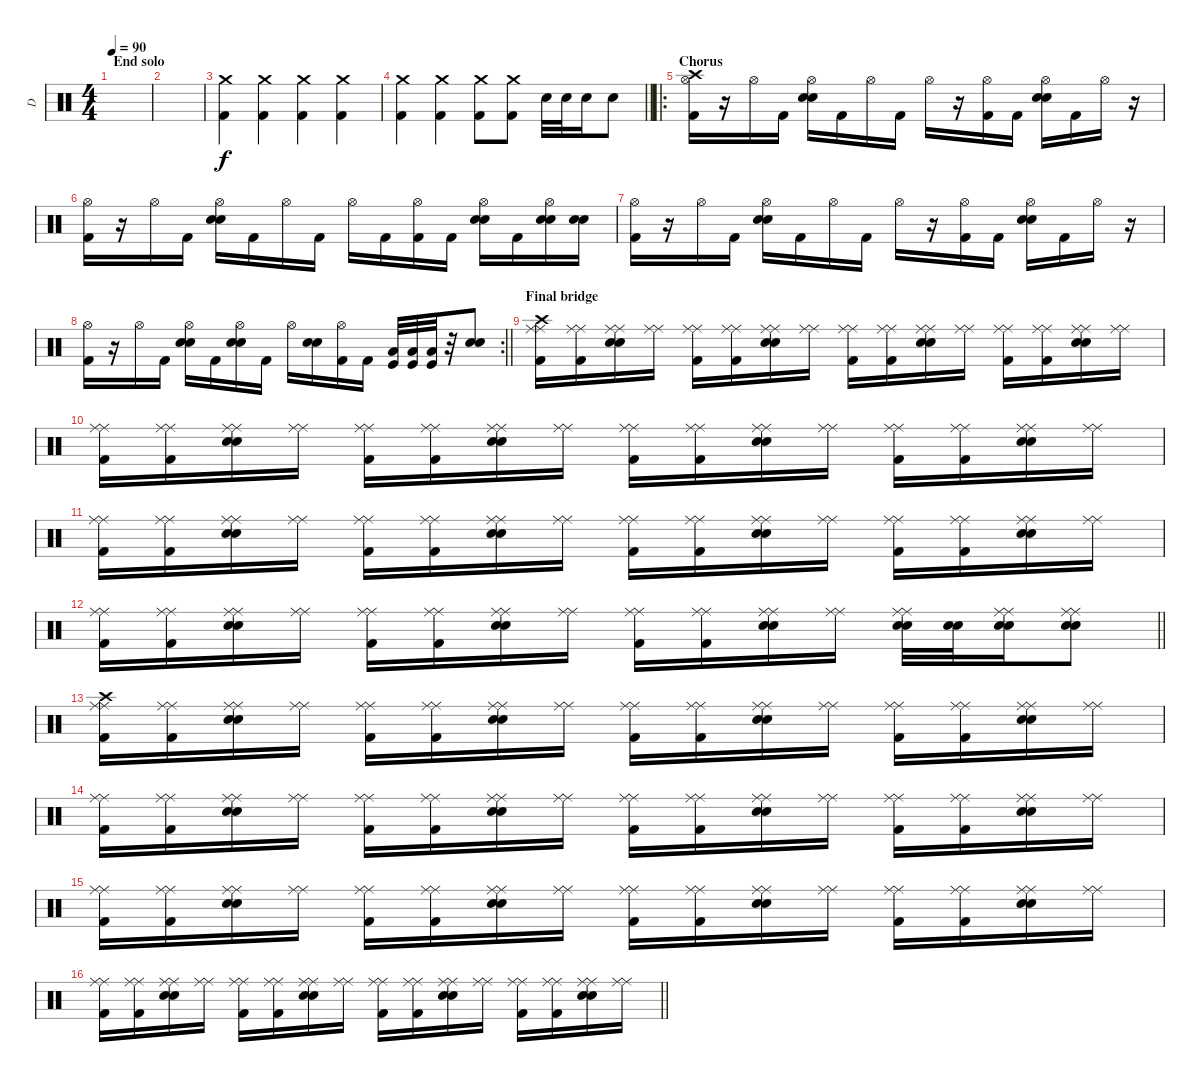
\track ("D" "D") {instrument percussion}
\staff {score}
\articulation defaults
\ts (4 4)
\section ("" "End solo")
\tempo 90
\clef neutral
\ks c
|
|
("Crash medium (hit)" "Kick (hit) 2").4 ("Crash medium (hit)" "Kick (hit) 2").4 ("Crash medium (hit)" "Kick (hit) 2").4 ("Crash medium (hit)" "Kick (hit) 2").4 |
\barLineRight lightlight
("Crash medium (hit)" "Kick (hit) 2").4 ("Crash medium (hit)" "Kick (hit) 2").4 ("Crash medium (hit)" "Kick (hit) 2").8 ("Crash medium (hit)" "Kick (hit) 2").8 "Electric Snare (hit)".32 "Electric Snare (hit)".32 "Electric Snare (hit)".16 "Electric Snare (hit)".8 |
\ro
\section ("" "Chorus")
("Crash high (hit)" "Kick (hit) 2" "Hi-Hat (open)").16 r.16 "Hi-Hat (open)".16 "Kick (hit) 2".16 ("Electric Snare (hit)" "Electric Snare (hit)" "Hi-Hat (open)").16 "Kick (hit) 2".16 "Hi-Hat (open)".16 "Kick (hit) 2".16 "Hi-Hat (open)".16 r.16 ("Kick (hit) 2" "Hi-Hat (open)").16 "Kick (hit) 2".16 ("Electric Snare (hit)" "Electric Snare (hit)" "Hi-Hat (open)").16 "Kick (hit) 2".16 "Hi-Hat (open)".16 r.16 |
("Kick (hit) 2" "Hi-Hat (open)").16 r.16 "Hi-Hat (open)".16 "Kick (hit) 2".16 ("Electric Snare (hit)" "Electric Snare (hit)" "Hi-Hat (open)").16 "Kick (hit) 2".16 "Hi-Hat (open)".16 "Kick (hit) 2".16 "Hi-Hat (open)".16 "Kick (hit) 2".16 ("Kick (hit) 2" "Hi-Hat (open)").16 "Kick (hit) 2".16 ("Electric Snare (hit)" "Electric Snare (hit)" "Hi-Hat (open)").16 "Kick (hit) 2".16 ("Electric Snare (hit)" "Electric Snare (hit)" "Hi-Hat (open)").16 ("Electric Snare (hit)" "Electric Snare (hit)").16 |
("Kick (hit) 2" "Hi-Hat (open)").16 r.16 "Hi-Hat (open)".16 "Kick (hit) 2".16 ("Electric Snare (hit)" "Electric Snare (hit)" "Hi-Hat (open)").16 "Kick (hit) 2".16 "Hi-Hat (open)".16 "Kick (hit) 2".16 "Hi-Hat (open)".16 r.16 ("Kick (hit) 2" "Hi-Hat (open)").16 "Kick (hit) 2".16 ("Electric Snare (hit)" "Electric Snare (hit)" "Hi-Hat (open)").16 "Kick (hit) 2".16 "Hi-Hat (open)".16 r.16 |
\rc 2
\barLineRight lightlight
("Kick (hit) 2" "Hi-Hat (open)").16 r.16 "Hi-Hat (open)".16 "Kick (hit) 2".16 ("Electric Snare (hit)" "Electric Snare (hit)" "Hi-Hat (open)").16 "Kick (hit) 2".16 ("Electric Snare (hit)" "Electric Snare (hit)" "Hi-Hat (open)").16 "Kick (hit) 2".16 "Hi-Hat (open)".16 ("Electric Snare (hit)" "Electric Snare (hit)").16 ("Kick (hit) 2" "Hi-Hat (open)").16 "Kick (hit) 2".16 ("Kick (hit)" "Low Tom (hit)").32 ("Kick (hit)" "Low Tom (hit)").32 ("Kick (hit)" "Low Tom (hit)").32 r.32 ("Electric Snare (hit)" "Electric Snare (hit)").8 |
\section ("" "Final bridge")
("Crash high (hit)" "Kick (hit) 2" "Ride (middle)" "Ride (middle)").16 ("Kick (hit) 2" "Ride (middle)" "Ride (middle)").16 ("Electric Snare (hit)" "Electric Snare (hit)" "Ride (middle)" "Ride (middle)").16 ("Ride (middle)" "Ride (middle)").16 ("Kick (hit) 2" "Ride (middle)" "Ride (middle)").16 ("Kick (hit) 2" "Ride (middle)" "Ride (middle)").16 ("Electric Snare (hit)" "Electric Snare (hit)" "Ride (middle)" "Ride (middle)").16 ("Ride (middle)" "Ride (middle)").16 ("Kick (hit) 2" "Ride (middle)" "Ride (middle)").16 ("Kick (hit) 2" "Ride (middle)" "Ride (middle)").16 ("Electric Snare (hit)" "Electric Snare (hit)" "Ride (middle)" "Ride (middle)").16 ("Ride (middle)" "Ride (middle)").16 ("Kick (hit) 2" "Ride (middle)" "Ride (middle)").16 ("Kick (hit) 2" "Ride (middle)" "Ride (middle)").16 ("Electric Snare (hit)" "Electric Snare (hit)" "Ride (middle)" "Ride (middle)").16 ("Ride (middle)" "Ride (middle)").16 |
("Kick (hit) 2" "Ride (middle)" "Ride (middle)").16 ("Kick (hit) 2" "Ride (middle)" "Ride (middle)").16 ("Electric Snare (hit)" "Electric Snare (hit)" "Ride (middle)" "Ride (middle)").16 ("Ride (middle)" "Ride (middle)").16 ("Kick (hit) 2" "Ride (middle)" "Ride (middle)").16 ("Kick (hit) 2" "Ride (middle)" "Ride (middle)").16 ("Electric Snare (hit)" "Electric Snare (hit)" "Ride (middle)" "Ride (middle)").16 ("Ride (middle)" "Ride (middle)").16 ("Kick (hit) 2" "Ride (middle)" "Ride (middle)").16 ("Kick (hit) 2" "Ride (middle)" "Ride (middle)").16 ("Electric Snare (hit)" "Electric Snare (hit)" "Ride (middle)" "Ride (middle)").16 ("Ride (middle)" "Ride (middle)").16 ("Kick (hit) 2" "Ride (middle)" "Ride (middle)").16 ("Kick (hit) 2" "Ride (middle)" "Ride (middle)").16 ("Electric Snare (hit)" "Electric Snare (hit)" "Ride (middle)" "Ride (middle)").16 ("Ride (middle)" "Ride (middle)").16 |
("Kick (hit) 2" "Ride (middle)" "Ride (middle)").16 ("Kick (hit) 2" "Ride (middle)" "Ride (middle)").16 ("Electric Snare (hit)" "Electric Snare (hit)" "Ride (middle)" "Ride (middle)").16 ("Ride (middle)" "Ride (middle)").16 ("Kick (hit) 2" "Ride (middle)" "Ride (middle)").16 ("Kick (hit) 2" "Ride (middle)" "Ride (middle)").16 ("Electric Snare (hit)" "Electric Snare (hit)" "Ride (middle)" "Ride (middle)").16 ("Ride (middle)" "Ride (middle)").16 ("Kick (hit) 2" "Ride (middle)" "Ride (middle)").16 ("Kick (hit) 2" "Ride (middle)" "Ride (middle)").16 ("Electric Snare (hit)" "Electric Snare (hit)" "Ride (middle)" "Ride (middle)").16 ("Ride (middle)" "Ride (middle)").16 ("Kick (hit) 2" "Ride (middle)" "Ride (middle)").16 ("Kick (hit) 2" "Ride (middle)" "Ride (middle)").16 ("Electric Snare (hit)" "Electric Snare (hit)" "Ride (middle)" "Ride (middle)").16 ("Ride (middle)" "Ride (middle)").16 |
\barLineRight lightlight
("Kick (hit) 2" "Ride (middle)" "Ride (middle)").16 ("Kick (hit) 2" "Ride (middle)" "Ride (middle)").16 ("Electric Snare (hit)" "Electric Snare (hit)" "Ride (middle)" "Ride (middle)").16 ("Ride (middle)" "Ride (middle)").16 ("Kick (hit) 2" "Ride (middle)" "Ride (middle)").16 ("Kick (hit) 2" "Ride (middle)" "Ride (middle)").16 ("Electric Snare (hit)" "Electric Snare (hit)" "Ride (middle)" "Ride (middle)").16 ("Ride (middle)" "Ride (middle)").16 ("Kick (hit) 2" "Ride (middle)" "Ride (middle)").16 ("Kick (hit) 2" "Ride (middle)" "Ride (middle)").16 ("Electric Snare (hit)" "Electric Snare (hit)" "Ride (middle)" "Ride (middle)").16 ("Ride (middle)" "Ride (middle)").16 ("Electric Snare (hit)" "Electric Snare (hit)" "Ride (middle)" "Ride (middle)").32 ("Electric Snare (hit)" "Electric Snare (hit)").32 ("Electric Snare (hit)" "Electric Snare (hit)" "Ride (middle)" "Ride (middle)").16 ("Electric Snare (hit)" "Electric Snare (hit)" "Ride (middle)" "Ride (middle)").8 |
("Crash high (hit)" "Kick (hit) 2" "Ride (middle)" "Ride (middle)").16 ("Kick (hit) 2" "Ride (middle)" "Ride (middle)").16 ("Electric Snare (hit)" "Electric Snare (hit)" "Ride (middle)" "Ride (middle)").16 ("Ride (middle)" "Ride (middle)").16 ("Kick (hit) 2" "Ride (middle)" "Ride (middle)").16 ("Kick (hit) 2" "Ride (middle)" "Ride (middle)").16 ("Electric Snare (hit)" "Electric Snare (hit)" "Ride (middle)" "Ride (middle)").16 ("Ride (middle)" "Ride (middle)").16 ("Kick (hit) 2" "Ride (middle)" "Ride (middle)").16 ("Kick (hit) 2" "Ride (middle)" "Ride (middle)").16 ("Electric Snare (hit)" "Electric Snare (hit)" "Ride (middle)" "Ride (middle)").16 ("Ride (middle)" "Ride (middle)").16 ("Kick (hit) 2" "Ride (middle)" "Ride (middle)").16 ("Kick (hit) 2" "Ride (middle)" "Ride (middle)").16 ("Electric Snare (hit)" "Electric Snare (hit)" "Ride (middle)" "Ride (middle)").16 ("Ride (middle)" "Ride (middle)").16 |
("Kick (hit) 2" "Ride (middle)" "Ride (middle)").16 ("Kick (hit) 2" "Ride (middle)" "Ride (middle)").16 ("Electric Snare (hit)" "Electric Snare (hit)" "Ride (middle)" "Ride (middle)").16 ("Ride (middle)" "Ride (middle)").16 ("Kick (hit) 2" "Ride (middle)" "Ride (middle)").16 ("Kick (hit) 2" "Ride (middle)" "Ride (middle)").16 ("Electric Snare (hit)" "Electric Snare (hit)" "Ride (middle)" "Ride (middle)").16 ("Ride (middle)" "Ride (middle)").16 ("Kick (hit) 2" "Ride (middle)" "Ride (middle)").16 ("Kick (hit) 2" "Ride (middle)" "Ride (middle)").16 ("Electric Snare (hit)" "Electric Snare (hit)" "Ride (middle)" "Ride (middle)").16 ("Ride (middle)" "Ride (middle)").16 ("Kick (hit) 2" "Ride (middle)" "Ride (middle)").16 ("Kick (hit) 2" "Ride (middle)" "Ride (middle)").16 ("Electric Snare (hit)" "Electric Snare (hit)" "Ride (middle)" "Ride (middle)").16 ("Ride (middle)" "Ride (middle)").16 |
("Kick (hit) 2" "Ride (middle)" "Ride (middle)").16 ("Kick (hit) 2" "Ride (middle)" "Ride (middle)").16 ("Electric Snare (hit)" "Electric Snare (hit)" "Ride (middle)" "Ride (middle)").16 ("Ride (middle)" "Ride (middle)").16 ("Kick (hit) 2" "Ride (middle)" "Ride (middle)").16 ("Kick (hit) 2" "Ride (middle)" "Ride (middle)").16 ("Electric Snare (hit)" "Electric Snare (hit)" "Ride (middle)" "Ride (middle)").16 ("Ride (middle)" "Ride (middle)").16 ("Kick (hit) 2" "Ride (middle)" "Ride (middle)").16 ("Kick (hit) 2" "Ride (middle)" "Ride (middle)").16 ("Electric Snare (hit)" "Electric Snare (hit)" "Ride (middle)" "Ride (middle)").16 ("Ride (middle)" "Ride (middle)").16 ("Kick (hit) 2" "Ride (middle)" "Ride (middle)").16 ("Kick (hit) 2" "Ride (middle)" "Ride (middle)").16 ("Electric Snare (hit)" "Electric Snare (hit)" "Ride (middle)" "Ride (middle)").16 ("Ride (middle)" "Ride (middle)").16 |
\barLineRight lightlight
("Kick (hit) 2" "Ride (middle)" "Ride (middle)").16 ("Kick (hit) 2" "Ride (middle)" "Ride (middle)").16 ("Electric Snare (hit)" "Electric Snare (hit)" "Ride (middle)" "Ride (middle)").16 ("Ride (middle)" "Ride (middle)").16 ("Kick (hit) 2" "Ride (middle)" "Ride (middle)").16 ("Kick (hit) 2" "Ride (middle)" "Ride (middle)").16 ("Electric Snare (hit)" "Electric Snare (hit)" "Ride (middle)" "Ride (middle)").16 ("Ride (middle)" "Ride (middle)").16 ("Kick (hit) 2" "Ride (middle)" "Ride (middle)").16 ("Kick (hit) 2" "Ride (middle)" "Ride (middle)").16 ("Electric Snare (hit)" "Electric Snare (hit)" "Ride (middle)" "Ride (middle)").16 ("Ride (middle)" "Ride (middle)").16 ("Kick (hit) 2" "Ride (middle)" "Ride (middle)").16 ("Kick (hit) 2" "Ride (middle)" "Ride (middle)").16 ("Electric Snare (hit)" "Electric Snare (hit)" "Ride (middle)" "Ride (middle)").16 ("Ride (middle)" "Ride (middle)").16
